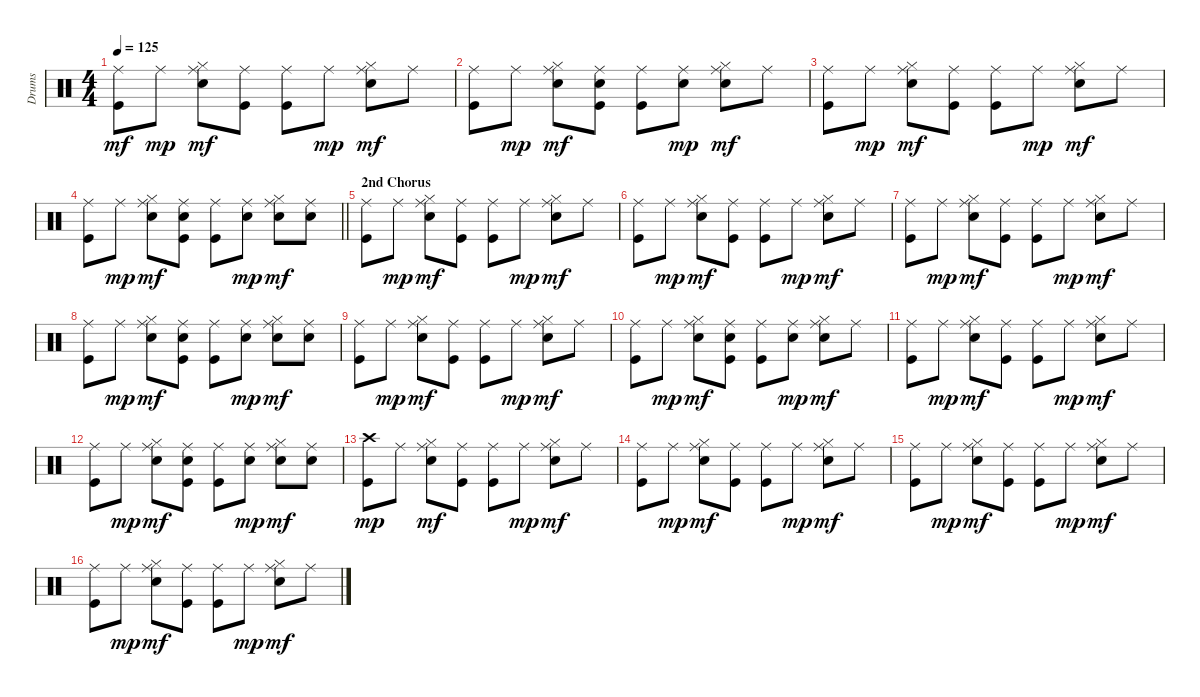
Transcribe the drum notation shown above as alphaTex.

\track ("Drums " "Drums ") {instrument percussion}
\staff {score}
\articulation defaults
\ts (4 4)
\tempo 125
\clef neutral
\ks c
("Kick (hit)" "Ride (middle)").8{dy mf} "Ride (middle)".8{dy mp} ("Snare (hit) 2" "Hi-Hat (closed)" "Ride (middle)").8{dy mf} ("Kick (hit)" "Ride (middle)").8 ("Kick (hit)" "Ride (middle)").8 "Ride (middle)".8{dy mp} ("Snare (hit) 2" "Hi-Hat (closed)" "Ride (middle)").8{dy mf} "Ride (middle)".8 |
("Kick (hit)" "Ride (middle)").8 "Ride (middle)".8{dy mp} ("Snare (hit) 2" "Hi-Hat (closed)" "Ride (middle)").8{dy mf} ("Kick (hit)" "Snare (hit) 2" "Ride (middle)").8 ("Kick (hit)" "Ride (middle)").8 ("Snare (hit) 2" "Ride (middle)").8{dy mp} ("Snare (hit) 2" "Hi-Hat (closed)" "Ride (middle)").8{dy mf} "Ride (middle)".8 |
("Kick (hit)" "Ride (middle)").8 "Ride (middle)".8{dy mp} ("Snare (hit) 2" "Hi-Hat (closed)" "Ride (middle)").8{dy mf} ("Kick (hit)" "Ride (middle)").8 ("Kick (hit)" "Ride (middle)").8 "Ride (middle)".8{dy mp} ("Snare (hit) 2" "Hi-Hat (closed)" "Ride (middle)").8{dy mf} "Ride (middle)".8 |
\barLineRight lightlight
("Kick (hit)" "Ride (middle)").8 "Ride (middle)".8{dy mp} ("Snare (hit) 2" "Hi-Hat (closed)" "Ride (middle)").8{dy mf} ("Kick (hit)" "Snare (hit) 2" "Ride (middle)").8 ("Kick (hit)" "Ride (middle)").8 ("Snare (hit) 2" "Ride (middle)").8{dy mp} ("Snare (hit) 2" "Hi-Hat (closed)" "Ride (middle)").8{dy mf} ("Snare (hit) 2" "Ride (middle)").8 |
\section ("" "2nd Chorus")
("Kick (hit)" "Ride (middle)").8 "Ride (middle)".8{dy mp} ("Snare (hit) 2" "Hi-Hat (closed)" "Ride (middle)").8{dy mf} ("Kick (hit)" "Ride (middle)").8 ("Kick (hit)" "Ride (middle)").8 "Ride (middle)".8{dy mp} ("Snare (hit) 2" "Hi-Hat (closed)" "Ride (middle)").8{dy mf} "Ride (middle)".8 |
("Kick (hit)" "Ride (middle)").8 "Ride (middle)".8{dy mp} ("Snare (hit) 2" "Hi-Hat (closed)" "Ride (middle)").8{dy mf} ("Kick (hit)" "Ride (middle)").8 ("Kick (hit)" "Ride (middle)").8 "Ride (middle)".8{dy mp} ("Snare (hit) 2" "Hi-Hat (closed)" "Ride (middle)").8{dy mf} "Ride (middle)".8 |
("Kick (hit)" "Ride (middle)").8 "Ride (middle)".8{dy mp} ("Snare (hit) 2" "Hi-Hat (closed)" "Ride (middle)").8{dy mf} ("Kick (hit)" "Ride (middle)").8 ("Kick (hit)" "Ride (middle)").8 "Ride (middle)".8{dy mp} ("Snare (hit) 2" "Hi-Hat (closed)" "Ride (middle)").8{dy mf} "Ride (middle)".8 |
("Kick (hit)" "Ride (middle)").8 "Ride (middle)".8{dy mp} ("Snare (hit) 2" "Hi-Hat (closed)" "Ride (middle)").8{dy mf} ("Kick (hit)" "Snare (hit) 2" "Ride (middle)").8 ("Kick (hit)" "Ride (middle)").8 ("Snare (hit) 2" "Ride (middle)").8{dy mp} ("Snare (hit) 2" "Hi-Hat (closed)" "Ride (middle)").8{dy mf} ("Snare (hit) 2" "Ride (middle)").8 |
("Kick (hit)" "Ride (middle)").8 "Ride (middle)".8{dy mp} ("Snare (hit) 2" "Hi-Hat (closed)" "Ride (middle)").8{dy mf} ("Kick (hit)" "Ride (middle)").8 ("Kick (hit)" "Ride (middle)").8 "Ride (middle)".8{dy mp} ("Snare (hit) 2" "Hi-Hat (closed)" "Ride (middle)").8{dy mf} "Ride (middle)".8 |
("Kick (hit)" "Ride (middle)").8 "Ride (middle)".8{dy mp} ("Snare (hit) 2" "Hi-Hat (closed)" "Ride (middle)").8{dy mf} ("Kick (hit)" "Snare (hit) 2" "Ride (middle)").8 ("Kick (hit)" "Ride (middle)").8 ("Snare (hit) 2" "Ride (middle)").8{dy mp} ("Snare (hit) 2" "Hi-Hat (closed)" "Ride (middle)").8{dy mf} "Ride (middle)".8 |
("Kick (hit)" "Ride (middle)").8 "Ride (middle)".8{dy mp} ("Snare (hit) 2" "Hi-Hat (closed)" "Ride (middle)").8{dy mf} ("Kick (hit)" "Ride (middle)").8 ("Kick (hit)" "Ride (middle)").8 "Ride (middle)".8{dy mp} ("Snare (hit) 2" "Hi-Hat (closed)" "Ride (middle)").8{dy mf} "Ride (middle)".8 |
("Kick (hit)" "Ride (middle)").8 "Ride (middle)".8{dy mp} ("Snare (hit) 2" "Hi-Hat (closed)" "Ride (middle)").8{dy mf} ("Kick (hit)" "Snare (hit) 2" "Ride (middle)").8 ("Kick (hit)" "Ride (middle)").8 ("Snare (hit) 2" "Ride (middle)").8{dy mp} ("Snare (hit) 2" "Hi-Hat (closed)" "Ride (middle)").8{dy mf} ("Snare (hit) 2" "Ride (middle)").8 |
("Kick (hit)" "Crash high (hit)").8{dy mp} "Ride (middle)".8 ("Snare (hit) 2" "Hi-Hat (closed)" "Ride (middle)").8{dy mf} ("Kick (hit)" "Ride (middle)").8 ("Kick (hit)" "Ride (middle)").8 "Ride (middle)".8{dy mp} ("Snare (hit) 2" "Hi-Hat (closed)" "Ride (middle)").8{dy mf} "Ride (middle)".8 |
("Kick (hit)" "Ride (middle)").8 "Ride (middle)".8{dy mp} ("Snare (hit) 2" "Hi-Hat (closed)" "Ride (middle)").8{dy mf} ("Kick (hit)" "Ride (middle)").8 ("Kick (hit)" "Ride (middle)").8 "Ride (middle)".8{dy mp} ("Snare (hit) 2" "Hi-Hat (closed)" "Ride (middle)").8{dy mf} "Ride (middle)".8 |
("Kick (hit)" "Ride (middle)").8 "Ride (middle)".8{dy mp} ("Snare (hit) 2" "Hi-Hat (closed)" "Ride (middle)").8{dy mf} ("Kick (hit)" "Ride (middle)").8 ("Kick (hit)" "Ride (middle)").8 "Ride (middle)".8{dy mp} ("Snare (hit) 2" "Hi-Hat (closed)" "Ride (middle)").8{dy mf} "Ride (middle)".8 |
("Kick (hit)" "Ride (middle)").8 "Ride (middle)".8{dy mp} ("Snare (hit) 2" "Hi-Hat (closed)" "Ride (middle)").8{dy mf} ("Kick (hit)" "Ride (middle)").8 ("Kick (hit)" "Ride (middle)").8 "Ride (middle)".8{dy mp} ("Snare (hit) 2" "Hi-Hat (closed)" "Ride (middle)").8{dy mf} "Ride (middle)".8
